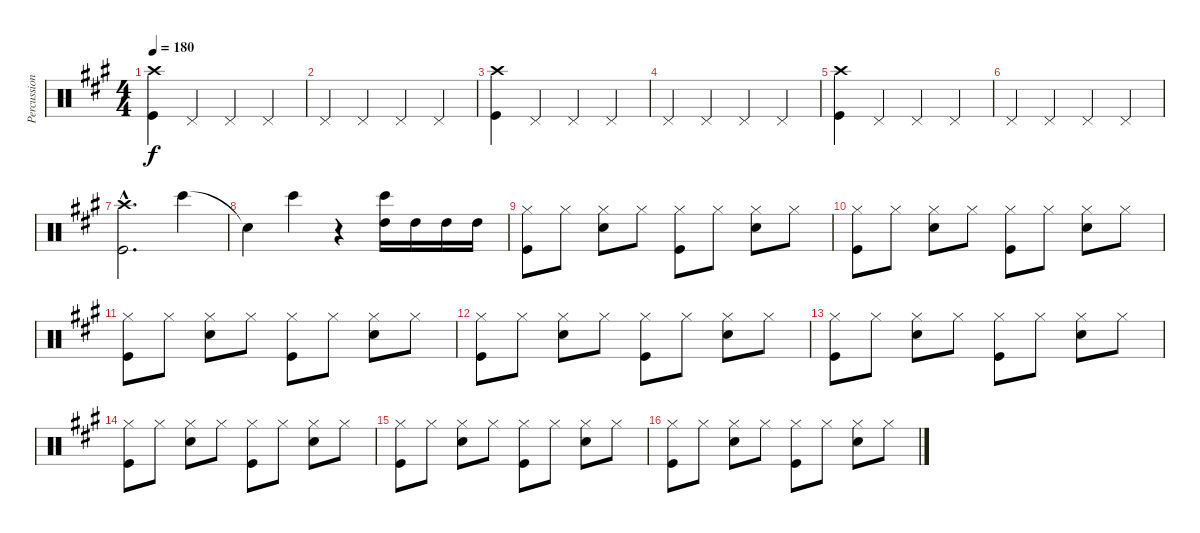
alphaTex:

\track ("Percussion" "Percussion") {instrument percussion}
\staff {score}
\articulation defaults
\ts (4 4)
\tempo 180
\clef neutral
\ks a
("Crash high (hit)" "Kick (hit)").4{dy f} "Pedal Hi-Hat (hit)".4 "Pedal Hi-Hat (hit)".4 "Pedal Hi-Hat (hit)".4 |
"Pedal Hi-Hat (hit)".4 "Pedal Hi-Hat (hit)".4 "Pedal Hi-Hat (hit)".4 "Pedal Hi-Hat (hit)".4 |
("Crash high (hit)" "Kick (hit)").4 "Pedal Hi-Hat (hit)".4 "Pedal Hi-Hat (hit)".4 "Pedal Hi-Hat (hit)".4 |
"Pedal Hi-Hat (hit)".4 "Pedal Hi-Hat (hit)".4 "Pedal Hi-Hat (hit)".4 "Pedal Hi-Hat (hit)".4 |
("Crash high (hit)" "Kick (hit)").4 "Pedal Hi-Hat (hit)".4 "Pedal Hi-Hat (hit)".4 "Pedal Hi-Hat (hit)".4 |
"Pedal Hi-Hat (hit)".4 "Pedal Hi-Hat (hit)".4 "Pedal Hi-Hat (hit)".4 "Pedal Hi-Hat (hit)".4 |
("Crash high (hit)"{hac} "Kick (hit)"{hac}).2{d} "Bongo High (hit)".4 |
"Snare (hit)"{t}.4 "Bongo High (hit)".4 r.4 ("Bongo High (hit)" "High Tom (hit)").16 "High Tom (hit)".16 "High Tom (hit)".16 "High Tom (hit)".16 |
("Hi-Hat (closed)" "Kick (hit)").8 "Hi-Hat (closed)".8 ("Hi-Hat (closed)" "Snare (hit) 2").8 "Hi-Hat (closed)".8 ("Hi-Hat (closed)" "Kick (hit)").8 "Hi-Hat (closed)".8 ("Hi-Hat (closed)" "Snare (hit) 2").8 "Hi-Hat (closed)".8 |
("Hi-Hat (closed)" "Kick (hit)").8 "Hi-Hat (closed)".8 ("Hi-Hat (closed)" "Snare (hit) 2").8 "Hi-Hat (closed)".8 ("Hi-Hat (closed)" "Kick (hit)").8 "Hi-Hat (closed)".8 ("Hi-Hat (closed)" "Snare (hit) 2").8 "Hi-Hat (closed)".8 |
("Hi-Hat (closed)" "Kick (hit)").8 "Hi-Hat (closed)".8 ("Hi-Hat (closed)" "Snare (hit) 2").8 "Hi-Hat (closed)".8 ("Hi-Hat (closed)" "Kick (hit)").8 "Hi-Hat (closed)".8 ("Hi-Hat (closed)" "Snare (hit) 2").8 "Hi-Hat (closed)".8 |
("Hi-Hat (closed)" "Kick (hit)").8 "Hi-Hat (closed)".8 ("Hi-Hat (closed)" "Snare (hit) 2").8 "Hi-Hat (closed)".8 ("Hi-Hat (closed)" "Kick (hit)").8 "Hi-Hat (closed)".8 ("Hi-Hat (closed)" "Snare (hit) 2").8 "Hi-Hat (closed)".8 |
("Hi-Hat (closed)" "Kick (hit)").8 "Hi-Hat (closed)".8 ("Hi-Hat (closed)" "Snare (hit) 2").8 "Hi-Hat (closed)".8 ("Hi-Hat (closed)" "Kick (hit)").8 "Hi-Hat (closed)".8 ("Hi-Hat (closed)" "Snare (hit) 2").8 "Hi-Hat (closed)".8 |
("Hi-Hat (closed)" "Kick (hit)").8 "Hi-Hat (closed)".8 ("Hi-Hat (closed)" "Snare (hit) 2").8 "Hi-Hat (closed)".8 ("Hi-Hat (closed)" "Kick (hit)").8 "Hi-Hat (closed)".8 ("Hi-Hat (closed)" "Snare (hit) 2").8 "Hi-Hat (closed)".8 |
("Hi-Hat (closed)" "Kick (hit)").8 "Hi-Hat (closed)".8 ("Hi-Hat (closed)" "Snare (hit) 2").8 "Hi-Hat (closed)".8 ("Hi-Hat (closed)" "Kick (hit)").8 "Hi-Hat (closed)".8 ("Hi-Hat (closed)" "Snare (hit) 2").8 "Hi-Hat (closed)".8 |
("Hi-Hat (closed)" "Kick (hit)").8 "Hi-Hat (closed)".8 ("Hi-Hat (closed)" "Snare (hit) 2").8 "Hi-Hat (closed)".8 ("Hi-Hat (closed)" "Kick (hit)").8 "Hi-Hat (closed)".8 ("Hi-Hat (closed)" "Snare (hit) 2").8 "Hi-Hat (closed)".8
